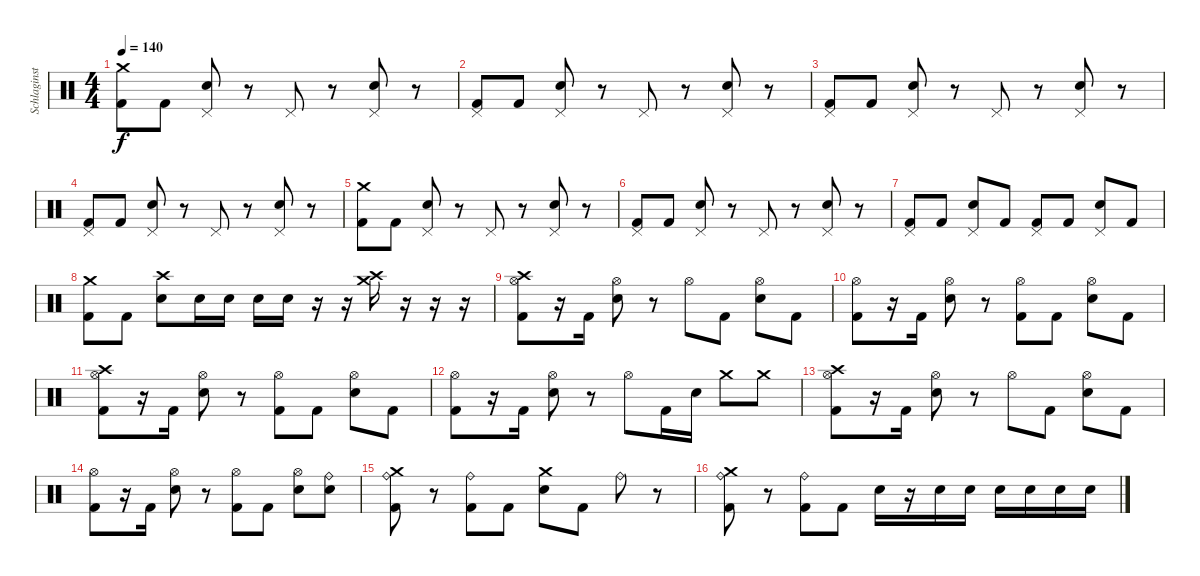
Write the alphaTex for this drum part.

\track ("Schlaginstrumente - Auswahl" "Schlaginst") {instrument percussion}
\staff {score}
\articulation defaults
\ts (4 4)
\tempo 140
\clef neutral
\ks c
("Crash medium (hit)" "Kick (hit) 2").8{dy f} "Kick (hit) 2".8 ("Pedal Hi-Hat (hit)" "Snare (hit) 2").8 r.8 "Pedal Hi-Hat (hit)".8 r.8 ("Pedal Hi-Hat (hit)" "Snare (hit) 2").8 r.8 |
("Pedal Hi-Hat (hit)" "Kick (hit) 2").8 "Kick (hit) 2".8 ("Pedal Hi-Hat (hit)" "Snare (hit) 2").8 r.8 "Pedal Hi-Hat (hit)".8 r.8 ("Pedal Hi-Hat (hit)" "Snare (hit) 2").8 r.8 |
("Pedal Hi-Hat (hit)" "Kick (hit) 2").8 "Kick (hit) 2".8 ("Pedal Hi-Hat (hit)" "Snare (hit) 2").8 r.8 "Pedal Hi-Hat (hit)".8 r.8 ("Pedal Hi-Hat (hit)" "Snare (hit) 2").8 r.8 |
("Pedal Hi-Hat (hit)" "Kick (hit) 2").8 "Kick (hit) 2".8 ("Pedal Hi-Hat (hit)" "Snare (hit) 2").8 r.8 "Pedal Hi-Hat (hit)".8 r.8 ("Pedal Hi-Hat (hit)" "Snare (hit) 2").8 r.8 |
("Crash medium (hit)" "Kick (hit) 2").8 "Kick (hit) 2".8 ("Pedal Hi-Hat (hit)" "Snare (hit) 2").8 r.8 "Pedal Hi-Hat (hit)".8 r.8 ("Pedal Hi-Hat (hit)" "Snare (hit) 2").8 r.8 |
("Pedal Hi-Hat (hit)" "Kick (hit) 2").8 "Kick (hit) 2".8 ("Pedal Hi-Hat (hit)" "Snare (hit) 2").8 r.8 "Pedal Hi-Hat (hit)".8 r.8 ("Pedal Hi-Hat (hit)" "Snare (hit) 2").8 r.8 |
("Pedal Hi-Hat (hit)" "Kick (hit) 2").8 "Kick (hit) 2".8 ("Pedal Hi-Hat (hit)" "Snare (hit) 2").8 "Kick (hit) 2".8 ("Pedal Hi-Hat (hit)" "Kick (hit) 2").8 "Kick (hit) 2".8 ("Pedal Hi-Hat (hit)" "Snare (hit) 2").8 "Kick (hit) 2".8 |
("Crash medium (hit)" "Kick (hit) 2").8 "Kick (hit) 2".8 ("Crash high (hit)" "Snare (hit) 2").8 "Snare (hit) 2".16 "Snare (hit) 2".16 "Snare (hit) 2".16 "Snare (hit) 2".16 r.16 r.16 ("Crash medium (hit)" "Crash high (hit)").16 r.16 r.16 r.16 |
("Crash high (hit)" "Hi-Hat (open)" "Kick (hit) 2").8 r.16 "Kick (hit) 2".16 ("Hi-Hat (open)" "Snare (hit) 2").8 r.8 "Hi-Hat (open)".8 "Kick (hit) 2".8 ("Hi-Hat (open)" "Snare (hit) 2").8 "Kick (hit) 2".8 |
("Hi-Hat (open)" "Kick (hit) 2").8 r.16 "Kick (hit) 2".16 ("Hi-Hat (open)" "Snare (hit) 2").8 r.8 ("Hi-Hat (open)" "Kick (hit) 2").8 "Kick (hit) 2".8 ("Hi-Hat (open)" "Snare (hit) 2").8 "Kick (hit) 2".8 |
("Crash high (hit)" "Hi-Hat (open)" "Kick (hit) 2").8 r.16 "Kick (hit) 2".16 ("Hi-Hat (open)" "Snare (hit) 2").8 r.8 ("Hi-Hat (open)" "Kick (hit) 2").8 "Kick (hit) 2".8 ("Hi-Hat (open)" "Snare (hit) 2").8 "Kick (hit) 2".8 |
("Hi-Hat (open)" "Kick (hit) 2").8 r.16 "Kick (hit) 2".16 ("Hi-Hat (open)" "Snare (hit) 2").8 r.8 "Hi-Hat (open)".8 "Kick (hit) 2".16 "Snare (hit) 2".16 "Crash medium (hit)".8 "Crash medium (hit)".8 |
("Crash high (hit)" "Hi-Hat (open)" "Kick (hit) 2").8 r.16 "Kick (hit) 2".16 ("Hi-Hat (open)" "Snare (hit) 2").8 r.8 "Hi-Hat (open)".8 "Kick (hit) 2".8 ("Hi-Hat (open)" "Snare (hit) 2").8 "Kick (hit) 2".8 |
("Hi-Hat (open)" "Kick (hit) 2").8 r.16 "Kick (hit) 2".16 ("Hi-Hat (open)" "Snare (hit) 2").8 r.8 ("Hi-Hat (open)" "Kick (hit) 2").8 "Kick (hit) 2".8 ("Hi-Hat (open)" "Snare (hit) 2").8 ("Ride (bell)" "Snare (hit) 2").8 |
("Crash medium (hit)" "Ride (bell)" "Kick (hit) 2").8 r.8 ("Ride (bell)" "Kick (hit) 2").8 "Kick (hit) 2".8 ("Crash medium (hit)" "Snare (hit) 2").8 "Kick (hit) 2".8 "Ride (bell)".8 r.8 |
("Crash medium (hit)" "Ride (bell)" "Kick (hit) 2").8 r.8 ("Ride (bell)" "Kick (hit) 2").8 "Kick (hit) 2".8 "Snare (hit) 2".16 r.16 "Snare (hit) 2".16 "Snare (hit) 2".16 "Snare (hit) 2".16 "Snare (hit) 2".16 "Snare (hit) 2".16 "Snare (hit) 2".16
